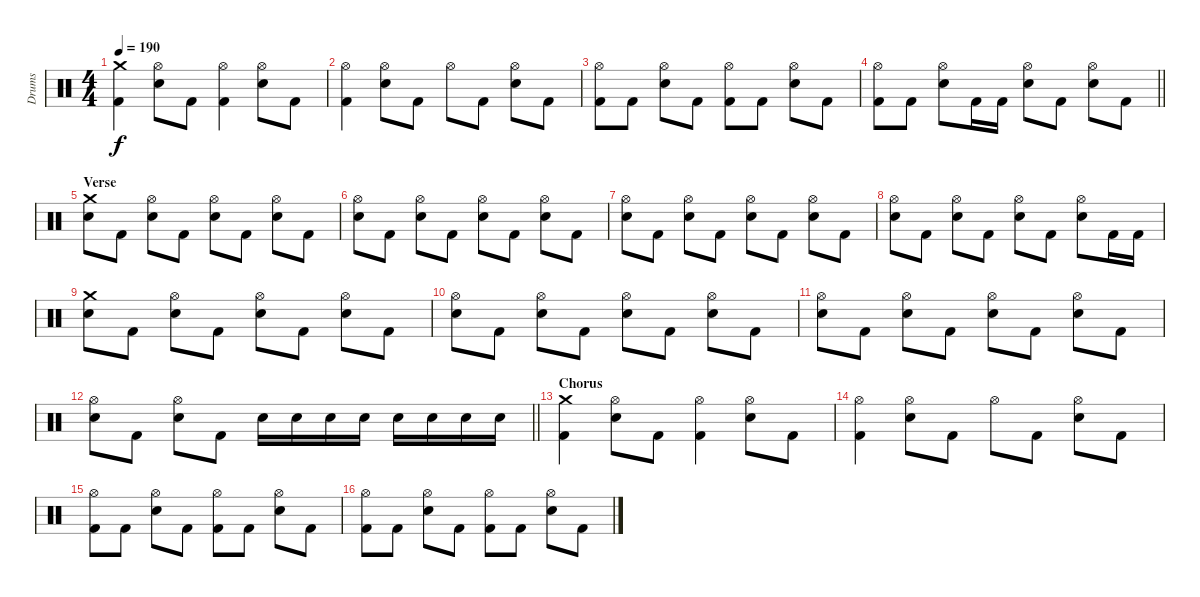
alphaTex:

\track ("Drums" "Drums") {instrument percussion}
\staff {score}
\articulation defaults
\ts (4 4)
\tempo 190
\clef neutral
\ks c
("Crash medium (hit)" "Kick (hit) 2").4{dy f} ("Hi-Hat (open)" "Snare (hit) 2").8 "Kick (hit) 2".8 ("Hi-Hat (open)" "Kick (hit) 2").4 ("Hi-Hat (open)" "Snare (hit) 2").8 "Kick (hit) 2".8 |
("Hi-Hat (open)" "Kick (hit) 2").4 ("Hi-Hat (open)" "Snare (hit) 2").8 "Kick (hit) 2".8 "Hi-Hat (open)".8 "Kick (hit) 2".8 ("Hi-Hat (open)" "Snare (hit) 2").8 "Kick (hit) 2".8 |
("Hi-Hat (open)" "Kick (hit) 2").8 "Kick (hit) 2".8 ("Hi-Hat (open)" "Snare (hit) 2").8 "Kick (hit) 2".8 ("Hi-Hat (open)" "Kick (hit) 2").8 "Kick (hit) 2".8 ("Hi-Hat (open)" "Snare (hit) 2").8 "Kick (hit) 2".8 |
\barLineRight lightlight
("Hi-Hat (open)" "Kick (hit) 2").8 "Kick (hit) 2".8 ("Hi-Hat (open)" "Snare (hit) 2").8 "Kick (hit) 2".16 "Kick (hit) 2".16 ("Hi-Hat (open)" "Snare (hit) 2").8 "Kick (hit) 2".8 ("Hi-Hat (open)" "Snare (hit) 2").8 "Kick (hit) 2".8 |
\section ("" "Verse")
("Crash medium (hit)" "Snare (hit) 2").8 "Kick (hit) 2".8 ("Hi-Hat (open)" "Snare (hit) 2").8 "Kick (hit) 2".8 ("Hi-Hat (open)" "Snare (hit) 2").8 "Kick (hit) 2".8 ("Hi-Hat (open)" "Snare (hit) 2").8 "Kick (hit) 2".8 |
("Hi-Hat (open)" "Snare (hit) 2").8 "Kick (hit) 2".8 ("Hi-Hat (open)" "Snare (hit) 2").8 "Kick (hit) 2".8 ("Hi-Hat (open)" "Snare (hit) 2").8 "Kick (hit) 2".8 ("Hi-Hat (open)" "Snare (hit) 2").8 "Kick (hit) 2".8 |
("Hi-Hat (open)" "Snare (hit) 2").8 "Kick (hit) 2".8 ("Hi-Hat (open)" "Snare (hit) 2").8 "Kick (hit) 2".8 ("Hi-Hat (open)" "Snare (hit) 2").8 "Kick (hit) 2".8 ("Hi-Hat (open)" "Snare (hit) 2").8 "Kick (hit) 2".8 |
("Hi-Hat (open)" "Snare (hit) 2").8 "Kick (hit) 2".8 ("Hi-Hat (open)" "Snare (hit) 2").8 "Kick (hit) 2".8 ("Hi-Hat (open)" "Snare (hit) 2").8 "Kick (hit) 2".8 ("Hi-Hat (open)" "Snare (hit) 2").8 "Kick (hit) 2".16 "Kick (hit) 2".16 |
("Crash medium (hit)" "Snare (hit) 2").8 "Kick (hit) 2".8 ("Hi-Hat (open)" "Snare (hit) 2").8 "Kick (hit) 2".8 ("Hi-Hat (open)" "Snare (hit) 2").8 "Kick (hit) 2".8 ("Hi-Hat (open)" "Snare (hit) 2").8 "Kick (hit) 2".8 |
("Hi-Hat (open)" "Snare (hit) 2").8 "Kick (hit) 2".8 ("Hi-Hat (open)" "Snare (hit) 2").8 "Kick (hit) 2".8 ("Hi-Hat (open)" "Snare (hit) 2").8 "Kick (hit) 2".8 ("Hi-Hat (open)" "Snare (hit) 2").8 "Kick (hit) 2".8 |
("Hi-Hat (open)" "Snare (hit) 2").8 "Kick (hit) 2".8 ("Hi-Hat (open)" "Snare (hit) 2").8 "Kick (hit) 2".8 ("Hi-Hat (open)" "Snare (hit) 2").8 "Kick (hit) 2".8 ("Hi-Hat (open)" "Snare (hit) 2").8 "Kick (hit) 2".8 |
\barLineRight lightlight
("Hi-Hat (open)" "Snare (hit) 2").8 "Kick (hit) 2".8 ("Hi-Hat (open)" "Snare (hit) 2").8 "Kick (hit) 2".8 "Snare (hit) 2".16 "Snare (hit) 2".16 "Snare (hit) 2".16 "Snare (hit) 2".16 "Snare (hit) 2".16 "Snare (hit) 2".16 "Snare (hit) 2".16 "Snare (hit) 2".16 |
\section ("" "Chorus")
("Crash medium (hit)" "Kick (hit) 2").4 ("Hi-Hat (open)" "Snare (hit) 2").8 "Kick (hit) 2".8 ("Hi-Hat (open)" "Kick (hit) 2").4 ("Hi-Hat (open)" "Snare (hit) 2").8 "Kick (hit) 2".8 |
("Hi-Hat (open)" "Kick (hit) 2").4 ("Hi-Hat (open)" "Snare (hit) 2").8 "Kick (hit) 2".8 "Hi-Hat (open)".8 "Kick (hit) 2".8 ("Hi-Hat (open)" "Snare (hit) 2").8 "Kick (hit) 2".8 |
("Hi-Hat (open)" "Kick (hit) 2").8 "Kick (hit) 2".8 ("Hi-Hat (open)" "Snare (hit) 2").8 "Kick (hit) 2".8 ("Hi-Hat (open)" "Kick (hit) 2").8 "Kick (hit) 2".8 ("Hi-Hat (open)" "Snare (hit) 2").8 "Kick (hit) 2".8 |
("Hi-Hat (open)" "Kick (hit) 2").8 "Kick (hit) 2".8 ("Hi-Hat (open)" "Snare (hit) 2").8 "Kick (hit) 2".8 ("Hi-Hat (open)" "Kick (hit) 2").8 "Kick (hit) 2".8 ("Hi-Hat (open)" "Snare (hit) 2").8 "Kick (hit) 2".8
